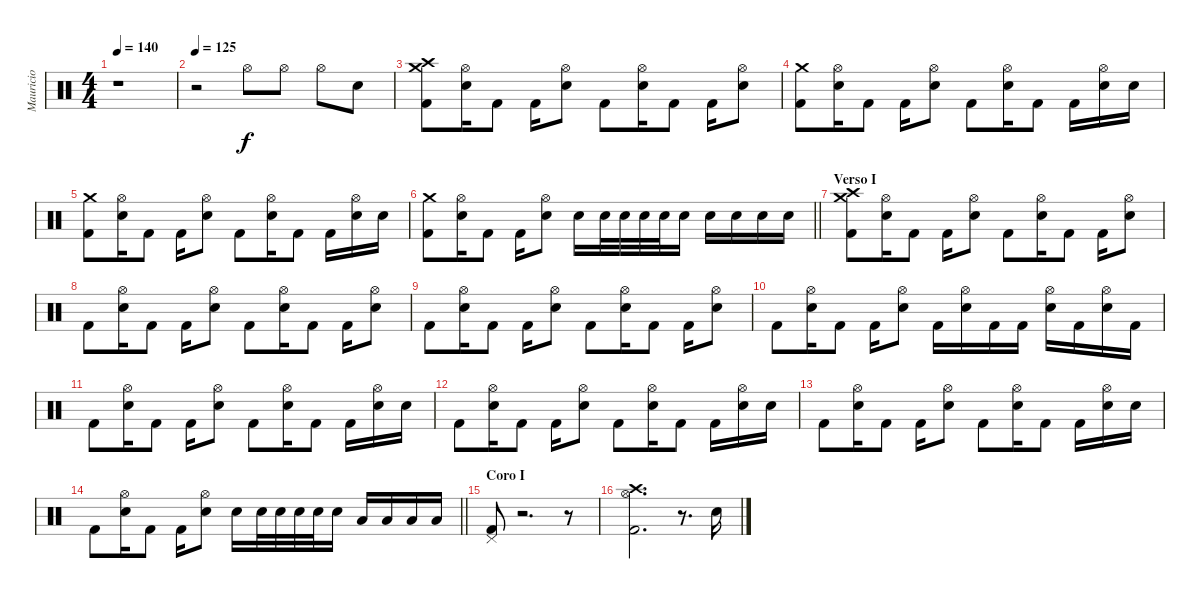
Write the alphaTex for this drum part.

\track ("Mauricio" "Mauricio") {instrument percussion}
\staff {score}
\articulation defaults
\ts (4 4)
\tempo 140
\clef neutral
\ks c
r.1{dy f} |
\tempo 125
r.2 "Hi-Hat (open)".8 "Hi-Hat (open)".8 "Hi-Hat (open)".8 "Electric Snare (hit)".8 |
("Crash medium (hit)" "Crash high (hit)" "Kick (hit) 2").8 ("Hi-Hat (open)" "Electric Snare (hit)").16 "Kick (hit) 2".8 "Kick (hit) 2".16 ("Hi-Hat (open)" "Electric Snare (hit)").8 "Kick (hit) 2".8 ("Hi-Hat (open)" "Electric Snare (hit)").16 "Kick (hit) 2".8 "Kick (hit) 2".16 ("Hi-Hat (open)" "Electric Snare (hit)").8 |
("Crash medium (hit)" "Kick (hit) 2").8 ("Hi-Hat (open)" "Electric Snare (hit)").16 "Kick (hit) 2".8 "Kick (hit) 2".16 ("Hi-Hat (open)" "Electric Snare (hit)").8 "Kick (hit) 2".8 ("Hi-Hat (open)" "Electric Snare (hit)").16 "Kick (hit) 2".8 "Kick (hit) 2".16 ("Hi-Hat (open)" "Electric Snare (hit)").16 "Electric Snare (hit)".16 |
("Crash medium (hit)" "Kick (hit) 2").8 ("Hi-Hat (open)" "Electric Snare (hit)").16 "Kick (hit) 2".8 "Kick (hit) 2".16 ("Hi-Hat (open)" "Electric Snare (hit)").8 "Kick (hit) 2".8 ("Hi-Hat (open)" "Electric Snare (hit)").16 "Kick (hit) 2".8 "Kick (hit) 2".16 ("Hi-Hat (open)" "Electric Snare (hit)").16 "Electric Snare (hit)".16 |
\barLineRight lightlight
("Crash medium (hit)" "Kick (hit) 2").8 ("Hi-Hat (open)" "Electric Snare (hit)").16 "Kick (hit) 2".8 "Kick (hit) 2".16 ("Hi-Hat (open)" "Electric Snare (hit)").8 "Electric Snare (hit)".16 "Electric Snare (hit)".32 "Electric Snare (hit)".32 "Electric Snare (hit)".32 "Electric Snare (hit)".32 "Electric Snare (hit)".16 "Electric Snare (hit)".16 "Electric Snare (hit)".16 "Electric Snare (hit)".16 "Electric Snare (hit)".16 |
\section ("" "Verso I")
("Crash medium (hit)" "Crash high (hit)" "Kick (hit) 2").8 ("Hi-Hat (open)" "Electric Snare (hit)").16 "Kick (hit) 2".8 "Kick (hit) 2".16 ("Hi-Hat (open)" "Electric Snare (hit)").8 "Kick (hit) 2".8 ("Hi-Hat (open)" "Electric Snare (hit)").16 "Kick (hit) 2".8 "Kick (hit) 2".16 ("Hi-Hat (open)" "Electric Snare (hit)").8 |
"Kick (hit) 2".8 ("Hi-Hat (open)" "Electric Snare (hit)").16 "Kick (hit) 2".8 "Kick (hit) 2".16 ("Hi-Hat (open)" "Electric Snare (hit)").8 "Kick (hit) 2".8 ("Hi-Hat (open)" "Electric Snare (hit)").16 "Kick (hit) 2".8 "Kick (hit) 2".16 ("Hi-Hat (open)" "Electric Snare (hit)").8 |
"Kick (hit) 2".8 ("Hi-Hat (open)" "Electric Snare (hit)").16 "Kick (hit) 2".8 "Kick (hit) 2".16 ("Hi-Hat (open)" "Electric Snare (hit)").8 "Kick (hit) 2".8 ("Hi-Hat (open)" "Electric Snare (hit)").16 "Kick (hit) 2".8 "Kick (hit) 2".16 ("Hi-Hat (open)" "Electric Snare (hit)").8 |
"Kick (hit) 2".8 ("Hi-Hat (open)" "Electric Snare (hit)").16 "Kick (hit) 2".8 "Kick (hit) 2".16 ("Hi-Hat (open)" "Electric Snare (hit)").8 "Kick (hit) 2".16 ("Hi-Hat (open)" "Electric Snare (hit)").16 "Kick (hit) 2".16 "Kick (hit) 2".16 ("Hi-Hat (open)" "Electric Snare (hit)").16 "Kick (hit) 2".16 ("Hi-Hat (open)" "Electric Snare (hit)").16 "Kick (hit) 2".16 |
"Kick (hit) 2".8 ("Hi-Hat (open)" "Electric Snare (hit)").16 "Kick (hit) 2".8 "Kick (hit) 2".16 ("Hi-Hat (open)" "Electric Snare (hit)").8 "Kick (hit) 2".8 ("Hi-Hat (open)" "Electric Snare (hit)").16 "Kick (hit) 2".8 "Kick (hit) 2".16 ("Hi-Hat (open)" "Electric Snare (hit)").16 "Electric Snare (hit)".16 |
"Kick (hit) 2".8 ("Hi-Hat (open)" "Electric Snare (hit)").16 "Kick (hit) 2".8 "Kick (hit) 2".16 ("Hi-Hat (open)" "Electric Snare (hit)").8 "Kick (hit) 2".8 ("Hi-Hat (open)" "Electric Snare (hit)").16 "Kick (hit) 2".8 "Kick (hit) 2".16 ("Hi-Hat (open)" "Electric Snare (hit)").16 "Electric Snare (hit)".16 |
"Kick (hit) 2".8 ("Hi-Hat (open)" "Electric Snare (hit)").16 "Kick (hit) 2".8 "Kick (hit) 2".16 ("Hi-Hat (open)" "Electric Snare (hit)").8 "Kick (hit) 2".8 ("Hi-Hat (open)" "Electric Snare (hit)").16 "Kick (hit) 2".8 "Kick (hit) 2".16 ("Hi-Hat (open)" "Electric Snare (hit)").16 "Electric Snare (hit)".16 |
\barLineRight lightlight "Kick (hit) 2".8
("Hi-Hat (open)" "Electric Snare (hit)").16 "Kick (hit) 2".8 "Kick (hit) 2".16 ("Hi-Hat (open)" "Electric Snare (hit)").8 "Electric Snare (hit)".16 "Electric Snare (hit)".32 "Electric Snare (hit)".32 "Electric Snare (hit)".32 "Electric Snare (hit)".32 "Electric Snare (hit)".16 "Low Tom (hit)".16 "Low Tom (hit)".16 "Low Floor Tom (hit)".16 "Low Floor Tom (hit)".16 |
\section ("" "Coro I")
("Pedal Hi-Hat (hit)" "Kick (hit) 2").8 r.2{d} r.8 |
("Crash high (hit)" "Hi-Hat (open)" "Kick (hit) 2").2{d} r.8{d} "Electric Snare (hit)".16
